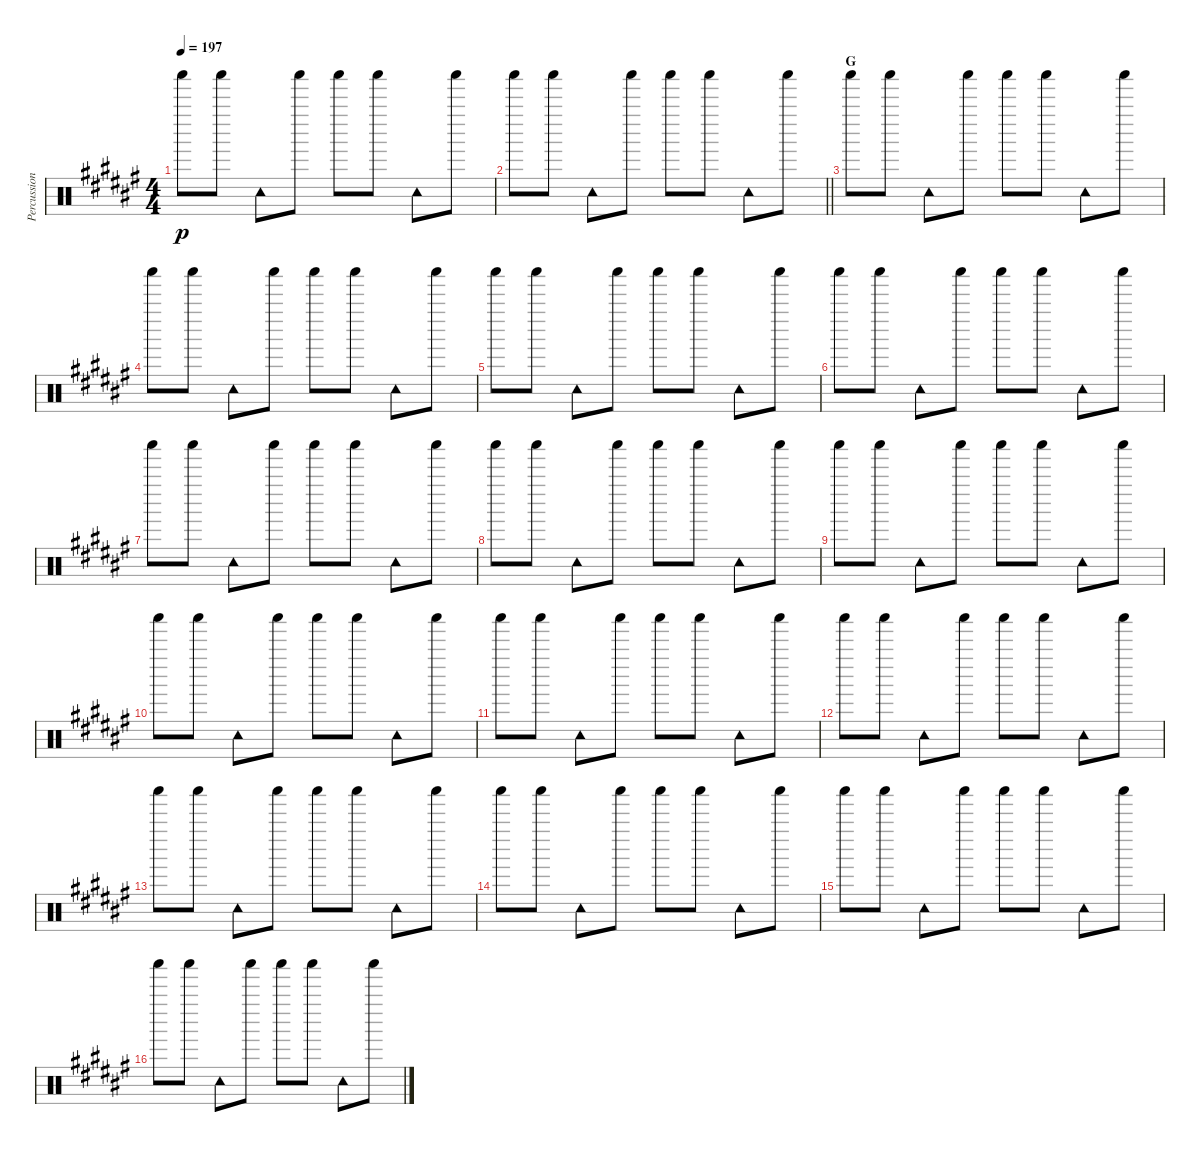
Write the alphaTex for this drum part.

\track ("Percussion (Tainaka Ritsu)" "Percussion") {instrument percussion}
\staff {score}
\articulation defaults
\ts (4 4)
\tempo 197
\clef neutral
\ks f# "Shaker (hit)".8{dy p} "Shaker (hit)".8 "Tambourine (hit)".8 "Shaker (hit)".8 "Shaker (hit)".8 "Shaker (hit)".8 "Tambourine (hit)".8 "Shaker (hit)".8
|
\barLineRight lightlight "Shaker (hit)".8 "Shaker (hit)".8 "Tambourine (hit)".8 "Shaker (hit)".8 "Shaker (hit)".8 "Shaker (hit)".8 "Tambourine (hit)".8 "Shaker (hit)".8
|
\section ("" "G")
"Shaker (hit)".8 "Shaker (hit)".8 "Tambourine (hit)".8 "Shaker (hit)".8 "Shaker (hit)".8 "Shaker (hit)".8 "Tambourine (hit)".8 "Shaker (hit)".8 |
"Shaker (hit)".8 "Shaker (hit)".8 "Tambourine (hit)".8 "Shaker (hit)".8 "Shaker (hit)".8 "Shaker (hit)".8 "Tambourine (hit)".8 "Shaker (hit)".8 |
"Shaker (hit)".8 "Shaker (hit)".8 "Tambourine (hit)".8 "Shaker (hit)".8 "Shaker (hit)".8 "Shaker (hit)".8 "Tambourine (hit)".8 "Shaker (hit)".8 |
"Shaker (hit)".8 "Shaker (hit)".8 "Tambourine (hit)".8 "Shaker (hit)".8 "Shaker (hit)".8 "Shaker (hit)".8 "Tambourine (hit)".8 "Shaker (hit)".8 |
"Shaker (hit)".8 "Shaker (hit)".8 "Tambourine (hit)".8 "Shaker (hit)".8 "Shaker (hit)".8 "Shaker (hit)".8 "Tambourine (hit)".8 "Shaker (hit)".8 |
"Shaker (hit)".8 "Shaker (hit)".8 "Tambourine (hit)".8 "Shaker (hit)".8 "Shaker (hit)".8 "Shaker (hit)".8 "Tambourine (hit)".8 "Shaker (hit)".8 |
"Shaker (hit)".8 "Shaker (hit)".8 "Tambourine (hit)".8 "Shaker (hit)".8 "Shaker (hit)".8 "Shaker (hit)".8 "Tambourine (hit)".8 "Shaker (hit)".8 |
"Shaker (hit)".8 "Shaker (hit)".8 "Tambourine (hit)".8 "Shaker (hit)".8 "Shaker (hit)".8 "Shaker (hit)".8 "Tambourine (hit)".8 "Shaker (hit)".8 |
"Shaker (hit)".8 "Shaker (hit)".8 "Tambourine (hit)".8 "Shaker (hit)".8 "Shaker (hit)".8 "Shaker (hit)".8 "Tambourine (hit)".8 "Shaker (hit)".8 |
"Shaker (hit)".8 "Shaker (hit)".8 "Tambourine (hit)".8 "Shaker (hit)".8 "Shaker (hit)".8 "Shaker (hit)".8 "Tambourine (hit)".8 "Shaker (hit)".8 |
"Shaker (hit)".8 "Shaker (hit)".8 "Tambourine (hit)".8 "Shaker (hit)".8 "Shaker (hit)".8 "Shaker (hit)".8 "Tambourine (hit)".8 "Shaker (hit)".8 |
"Shaker (hit)".8 "Shaker (hit)".8 "Tambourine (hit)".8 "Shaker (hit)".8 "Shaker (hit)".8 "Shaker (hit)".8 "Tambourine (hit)".8 "Shaker (hit)".8 |
"Shaker (hit)".8 "Shaker (hit)".8 "Tambourine (hit)".8 "Shaker (hit)".8 "Shaker (hit)".8 "Shaker (hit)".8 "Tambourine (hit)".8 "Shaker (hit)".8 |
"Shaker (hit)".8 "Shaker (hit)".8 "Tambourine (hit)".8 "Shaker (hit)".8 "Shaker (hit)".8 "Shaker (hit)".8 "Tambourine (hit)".8 "Shaker (hit)".8
